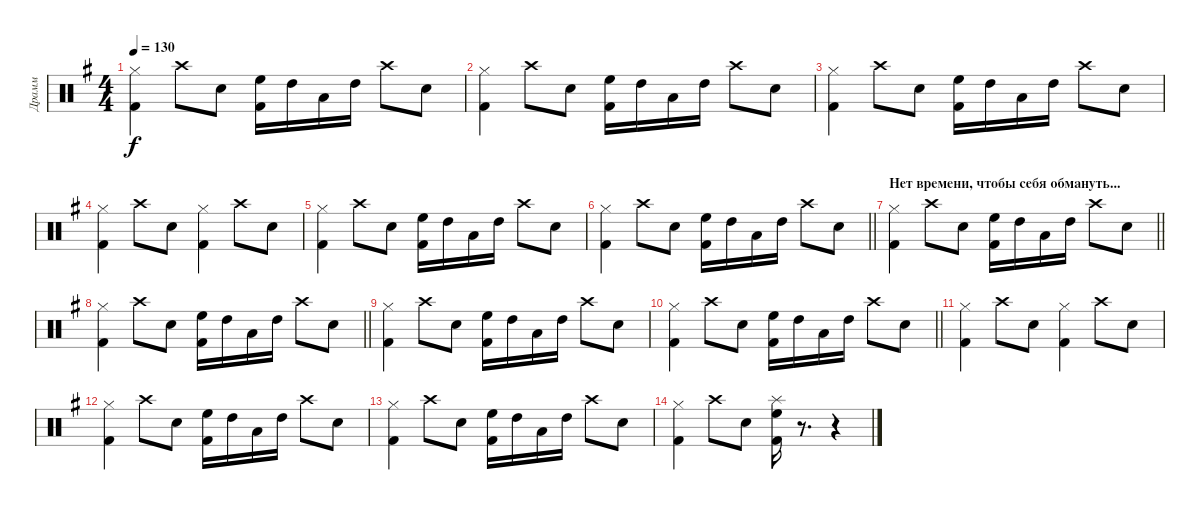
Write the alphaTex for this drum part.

\track ("Драмм" "Драмм") {instrument percussion}
\staff {score}
\articulation defaults
\ts (4 4)
\tempo 130
\clef neutral
\ks eminor
("Kick (hit) 2" "Hi-Hat (closed)").4{dy f} "Crash high (hit)".8 "Snare (hit) 2".8 ("High Floor Tom (hit)" "Kick (hit) 2").16 "High Tom (hit)".16 "Low Tom (hit)".16 "High Tom (hit)".16 "Crash high (hit)".8 "Snare (hit) 2".8 |
("Kick (hit) 2" "Hi-Hat (closed)").4 "Crash high (hit)".8 "Snare (hit) 2".8 ("High Floor Tom (hit)" "Kick (hit) 2").16 "High Tom (hit)".16 "Low Tom (hit)".16 "High Tom (hit)".16 "Crash high (hit)".8 "Snare (hit) 2".8 |
("Kick (hit) 2" "Hi-Hat (closed)").4 "Crash high (hit)".8 "Snare (hit) 2".8 ("High Floor Tom (hit)" "Kick (hit) 2").16 "High Tom (hit)".16 "Low Tom (hit)".16 "High Tom (hit)".16 "Crash high (hit)".8 "Snare (hit) 2".8 |
("Kick (hit) 2" "Hi-Hat (closed)").4 "Crash high (hit)".8 "Snare (hit) 2".8 ("Kick (hit) 2" "Hi-Hat (closed)").4 "Crash high (hit)".8 "Snare (hit) 2".8 |
("Kick (hit) 2" "Hi-Hat (closed)").4 "Crash high (hit)".8 "Snare (hit) 2".8 ("High Floor Tom (hit)" "Kick (hit) 2").16 "High Tom (hit)".16 "Low Tom (hit)".16 "High Tom (hit)".16 "Crash high (hit)".8 "Snare (hit) 2".8 |
\barLineRight lightlight
("Kick (hit) 2" "Hi-Hat (closed)").4 "Crash high (hit)".8 "Snare (hit) 2".8 ("High Floor Tom (hit)" "Kick (hit) 2").16 "High Tom (hit)".16 "Low Tom (hit)".16 "High Tom (hit)".16 "Crash high (hit)".8 "Snare (hit) 2".8 |
\section ("" "Нет времени, чтобы себя обмануть...")
\barLineRight lightlight
("Kick (hit) 2" "Hi-Hat (closed)").4 "Crash high (hit)".8 "Snare (hit) 2".8 ("High Floor Tom (hit)" "Kick (hit) 2").16 "High Tom (hit)".16 "Low Tom (hit)".16 "High Tom (hit)".16 "Crash high (hit)".8 "Snare (hit) 2".8 |
\barLineRight lightlight
("Kick (hit) 2" "Hi-Hat (closed)").4 "Crash high (hit)".8 "Snare (hit) 2".8 ("High Floor Tom (hit)" "Kick (hit) 2").16 "High Tom (hit)".16 "Low Tom (hit)".16 "High Tom (hit)".16 "Crash high (hit)".8 "Snare (hit) 2".8 |
("Kick (hit) 2" "Hi-Hat (closed)").4 "Crash high (hit)".8 "Snare (hit) 2".8 ("High Floor Tom (hit)" "Kick (hit) 2").16 "High Tom (hit)".16 "Low Tom (hit)".16 "High Tom (hit)".16 "Crash high (hit)".8 "Snare (hit) 2".8 |
\barLineRight lightlight
("Kick (hit) 2" "Hi-Hat (closed)").4 "Crash high (hit)".8 "Snare (hit) 2".8 ("High Floor Tom (hit)" "Kick (hit) 2").16 "High Tom (hit)".16 "Low Tom (hit)".16 "High Tom (hit)".16 "Crash high (hit)".8 "Snare (hit) 2".8 |
("Kick (hit) 2" "Hi-Hat (closed)").4 "Crash high (hit)".8 "Snare (hit) 2".8 ("Kick (hit) 2" "Hi-Hat (closed)").4 "Crash high (hit)".8 "Snare (hit) 2".8 |
("Kick (hit) 2" "Hi-Hat (closed)").4 "Crash high (hit)".8 "Snare (hit) 2".8 ("High Floor Tom (hit)" "Kick (hit) 2").16 "High Tom (hit)".16 "Low Tom (hit)".16 "High Tom (hit)".16 "Crash high (hit)".8 "Snare (hit) 2".8 |
("Kick (hit) 2" "Hi-Hat (closed)").4 "Crash high (hit)".8 "Snare (hit) 2".8 ("High Floor Tom (hit)" "Kick (hit) 2").16 "High Tom (hit)".16 "Low Tom (hit)".16 "High Tom (hit)".16 "Crash high (hit)".8 "Snare (hit) 2".8 |
("Kick (hit) 2" "Hi-Hat (closed)").4 "Crash high (hit)".8 "Snare (hit) 2".8 ("High Floor Tom (hit)" "Splash (hit)" "Kick (hit) 2").16 r.8{d} r.4
